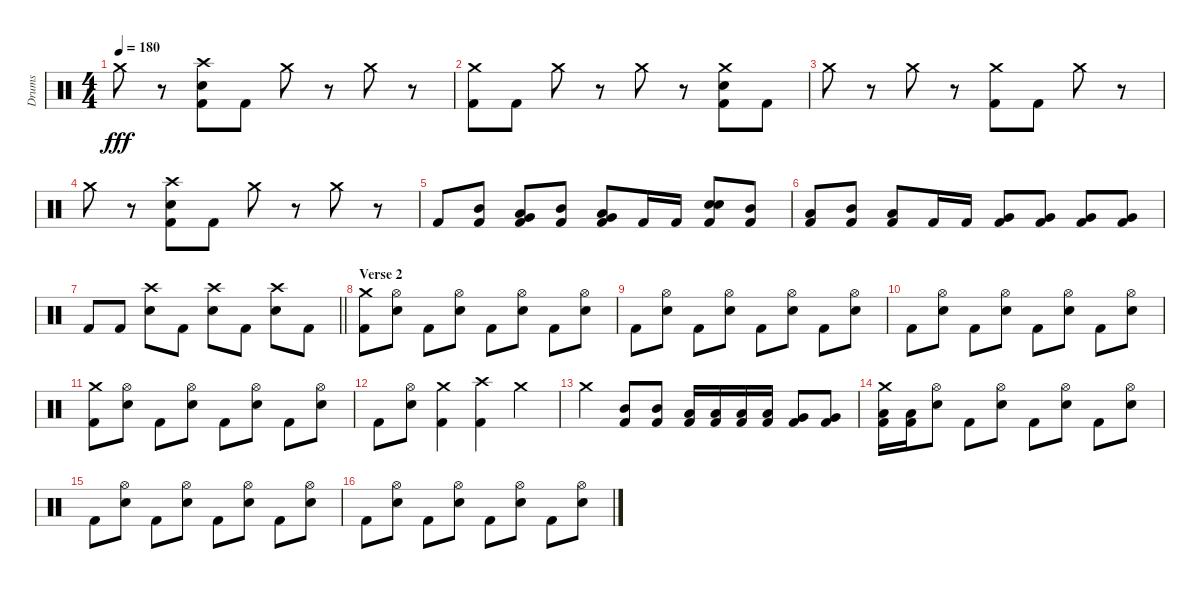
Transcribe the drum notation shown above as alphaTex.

\track ("Drums " "Drums ") {instrument percussion}
\staff {score}
\articulation defaults
\ts (4 4)
\tempo 180
\clef neutral
\ks c "Crash medium (hit)".8{dy fff}
r.8 ("Crash high (hit)" "Snare (hit) 2" "Kick (hit) 2").8 "Kick (hit) 2".8 "Crash medium (hit)".8 r.8 "Crash medium (hit)".8 r.8 |
("Crash medium (hit)" "Kick (hit) 2").8 "Kick (hit) 2".8 "Crash medium (hit)".8 r.8 "Crash medium (hit)".8 r.8 ("Crash medium (hit)" "Snare (hit) 2" "Kick (hit) 2").8 "Kick (hit) 2".8 |
"Crash medium (hit)".8 r.8 "Crash medium (hit)".8 r.8 ("Crash medium (hit)" "Kick (hit) 2").8 "Kick (hit) 2".8 "Crash medium (hit)".8 r.8 |
"Crash medium (hit)".8 r.8 ("Crash high (hit)" "Snare (hit) 2" "Kick (hit) 2").8 "Kick (hit) 2".8 "Crash medium (hit)".8 r.8 "Crash medium (hit)".8 r.8 |
"Kick (hit) 2".8 ("Mid Tom (hit)" "Kick (hit) 2").8 ("Very Low Tom (hit)" "Low Tom (hit)" "Kick (hit) 2").8 ("Mid Tom (hit)" "Kick (hit) 2").8 ("Very Low Tom (hit)" "Low Tom (hit)" "Kick (hit) 2").8 "Kick (hit) 2".16 "Kick (hit) 2".16 ("Electric Snare (hit)" "Snare (hit) 2" "Kick (hit) 2").8 ("Mid Tom (hit)" "Kick (hit) 2").8 |
("Low Tom (hit)" "Kick (hit) 2").8 ("Mid Tom (hit)" "Kick (hit) 2").8 ("Low Tom (hit)" "Kick (hit) 2").8 "Kick (hit) 2".16 "Kick (hit) 2".16 ("Very Low Tom (hit)" "Kick (hit) 2").8 ("Very Low Tom (hit)" "Kick (hit) 2").8 ("Very Low Tom (hit)" "Kick (hit) 2").8 ("Very Low Tom (hit)" "Kick (hit) 2").8 |
\barLineRight lightlight "Kick (hit) 2".8 "Kick (hit) 2".8
("Crash high (hit)" "Snare (hit) 2").8 "Kick (hit) 2".8 ("Crash high (hit)" "Snare (hit) 2").8 "Kick (hit) 2".8 ("Crash high (hit)" "Snare (hit) 2").8 "Kick (hit) 2".8 |
\section ("" "Verse 2")
("Crash medium (hit)" "Kick (hit) 2").8 ("Hi-Hat (open)" "Snare (hit) 2").8 "Kick (hit) 2".8 ("Hi-Hat (open)" "Snare (hit) 2").8 "Kick (hit) 2".8 ("Hi-Hat (open)" "Snare (hit) 2").8 "Kick (hit) 2".8 ("Hi-Hat (open)" "Snare (hit) 2").8 |
"Kick (hit) 2".8 ("Hi-Hat (open)" "Snare (hit) 2").8 "Kick (hit) 2".8 ("Hi-Hat (open)" "Snare (hit) 2").8 "Kick (hit) 2".8 ("Hi-Hat (open)" "Snare (hit) 2").8 "Kick (hit) 2".8 ("Hi-Hat (open)" "Snare (hit) 2").8 |
"Kick (hit) 2".8 ("Hi-Hat (open)" "Snare (hit) 2").8 "Kick (hit) 2".8 ("Hi-Hat (open)" "Snare (hit) 2").8 "Kick (hit) 2".8 ("Hi-Hat (open)" "Snare (hit) 2").8 "Kick (hit) 2".8 ("Hi-Hat (open)" "Snare (hit) 2").8 |
("Crash medium (hit)" "Kick (hit) 2").8 ("Hi-Hat (open)" "Snare (hit) 2").8 "Kick (hit) 2".8 ("Hi-Hat (open)" "Snare (hit) 2").8 "Kick (hit) 2".8 ("Hi-Hat (open)" "Snare (hit) 2").8 "Kick (hit) 2".8 ("Hi-Hat (open)" "Snare (hit) 2").8 |
"Kick (hit) 2".8 ("Hi-Hat (open)" "Snare (hit) 2").8 ("Crash medium (hit)" "Kick (hit) 2").4 ("Crash high (hit)" "Kick (hit) 2").4 "Crash medium (hit)".4 |
"Crash medium (hit)".4 ("Mid Tom (hit)" "Kick (hit) 2").8 ("Mid Tom (hit)" "Kick (hit) 2").8 ("Low Tom (hit)" "Kick (hit) 2").16 ("Low Tom (hit)" "Kick (hit) 2").16 ("Low Tom (hit)" "Kick (hit) 2").16 ("Low Tom (hit)" "Kick (hit) 2").16 ("Very Low Tom (hit)" "Kick (hit) 2").8 ("Very Low Tom (hit)" "Kick (hit) 2").8 |
("Crash medium (hit)" "Low Floor Tom (hit)" "Kick (hit) 2").16 ("Low Floor Tom (hit)" "Kick (hit) 2").16 ("Hi-Hat (open)" "Snare (hit) 2").8 "Kick (hit) 2".8 ("Hi-Hat (open)" "Snare (hit) 2").8 "Kick (hit) 2".8 ("Hi-Hat (open)" "Snare (hit) 2").8 "Kick (hit) 2".8 ("Hi-Hat (open)" "Snare (hit) 2").8 |
"Kick (hit) 2".8 ("Hi-Hat (open)" "Snare (hit) 2").8 "Kick (hit) 2".8 ("Hi-Hat (open)" "Snare (hit) 2").8 "Kick (hit) 2".8 ("Hi-Hat (open)" "Snare (hit) 2").8 "Kick (hit) 2".8 ("Hi-Hat (open)" "Snare (hit) 2").8 |
"Kick (hit) 2".8 ("Hi-Hat (open)" "Snare (hit) 2").8 "Kick (hit) 2".8 ("Hi-Hat (open)" "Snare (hit) 2").8 "Kick (hit) 2".8 ("Hi-Hat (open)" "Snare (hit) 2").8 "Kick (hit) 2".8 ("Hi-Hat (open)" "Snare (hit) 2").8
